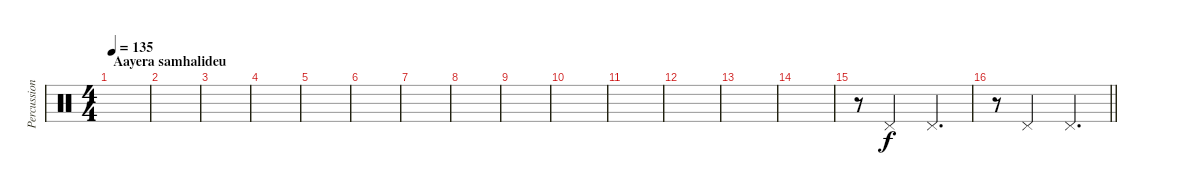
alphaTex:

\track ("Percussion" "Percussion") {instrument percussion}
\staff {score}
\articulation defaults
\ts (4 4)
\section ("" "Aayera samhalideu")
\tempo 135
\clef neutral
\ks c
|
|
|
|
|
|
|
|
|
|
|
|
|
|
r.8 "Pedal Hi-Hat (hit)".2 "Pedal Hi-Hat (hit)".4{d} |
\barLineRight lightlight
r.8 "Pedal Hi-Hat (hit)".2 "Pedal Hi-Hat (hit)".4{d}
